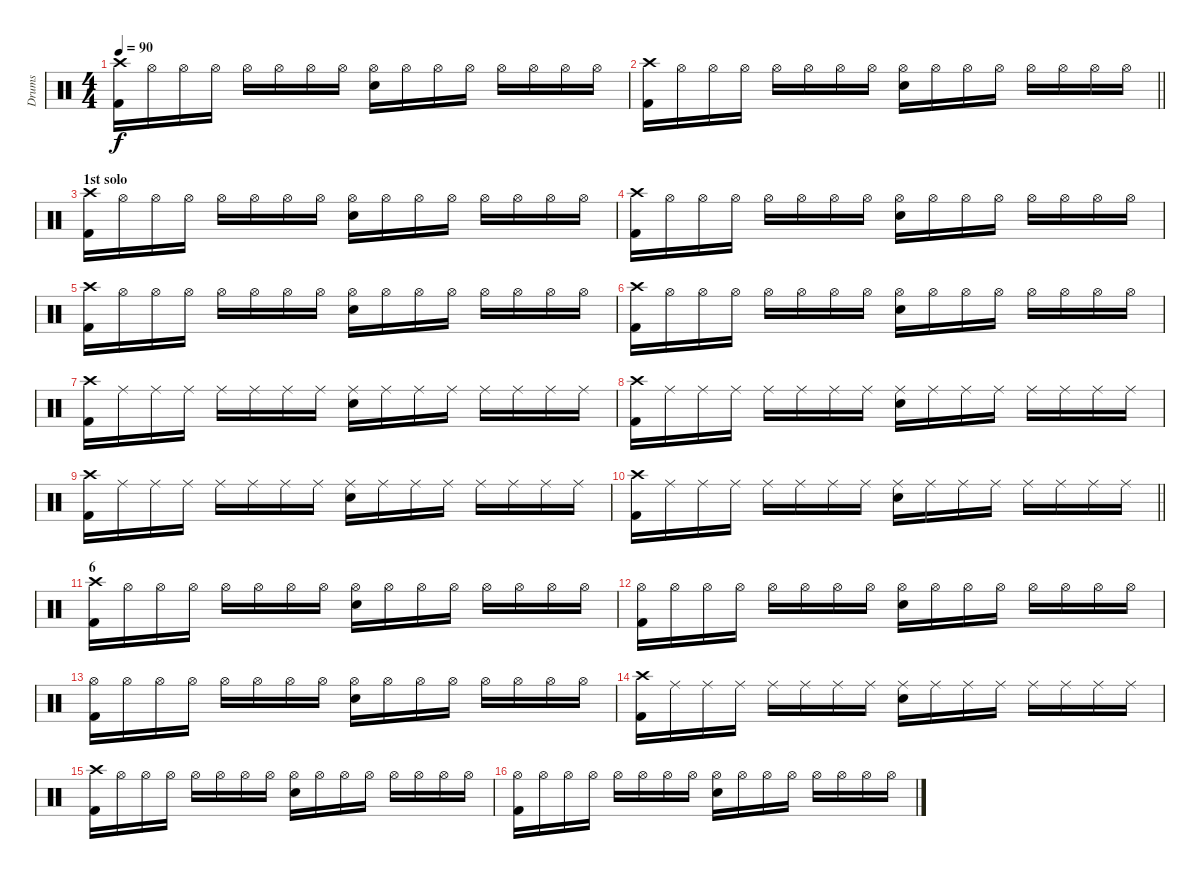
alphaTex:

\track ("Drums" "Drums") {instrument percussion}
\staff {score}
\articulation defaults
\ts (4 4)
\tempo 90
\clef neutral
\ks c
("Crash high (hit)" "Kick (hit) 2").16{dy f} "Hi-Hat (open)".16 "Hi-Hat (open)".16 "Hi-Hat (open)".16 "Hi-Hat (open)".16 "Hi-Hat (open)".16 "Hi-Hat (open)".16 "Hi-Hat (open)".16 ("Hi-Hat (open)" "Snare (hit) 2").16 "Hi-Hat (open)".16 "Hi-Hat (open)".16 "Hi-Hat (open)".16 "Hi-Hat (open)".16 "Hi-Hat (open)".16 "Hi-Hat (open)".16 "Hi-Hat (open)".16 |
\barLineRight lightlight
("Crash high (hit)" "Kick (hit) 2").16 "Hi-Hat (open)".16 "Hi-Hat (open)".16 "Hi-Hat (open)".16 "Hi-Hat (open)".16 "Hi-Hat (open)".16 "Hi-Hat (open)".16 "Hi-Hat (open)".16 ("Hi-Hat (open)" "Snare (hit) 2").16 "Hi-Hat (open)".16 "Hi-Hat (open)".16 "Hi-Hat (open)".16 "Hi-Hat (open)".16 "Hi-Hat (open)".16 "Hi-Hat (open)".16 "Hi-Hat (open)".16 |
\section ("" "1st solo")
("Crash high (hit)" "Kick (hit) 2").16 "Hi-Hat (open)".16 "Hi-Hat (open)".16 "Hi-Hat (open)".16 "Hi-Hat (open)".16 "Hi-Hat (open)".16 "Hi-Hat (open)".16 "Hi-Hat (open)".16 ("Hi-Hat (open)" "Snare (hit) 2").16 "Hi-Hat (open)".16 "Hi-Hat (open)".16 "Hi-Hat (open)".16 "Hi-Hat (open)".16 "Hi-Hat (open)".16 "Hi-Hat (open)".16 "Hi-Hat (open)".16 |
("Crash high (hit)" "Kick (hit) 2").16 "Hi-Hat (open)".16 "Hi-Hat (open)".16 "Hi-Hat (open)".16 "Hi-Hat (open)".16 "Hi-Hat (open)".16 "Hi-Hat (open)".16 "Hi-Hat (open)".16 ("Hi-Hat (open)" "Snare (hit) 2").16 "Hi-Hat (open)".16 "Hi-Hat (open)".16 "Hi-Hat (open)".16 "Hi-Hat (open)".16 "Hi-Hat (open)".16 "Hi-Hat (open)".16 "Hi-Hat (open)".16 |
("Crash high (hit)" "Kick (hit) 2").16 "Hi-Hat (open)".16 "Hi-Hat (open)".16 "Hi-Hat (open)".16 "Hi-Hat (open)".16 "Hi-Hat (open)".16 "Hi-Hat (open)".16 "Hi-Hat (open)".16 ("Hi-Hat (open)" "Snare (hit) 2").16 "Hi-Hat (open)".16 "Hi-Hat (open)".16 "Hi-Hat (open)".16 "Hi-Hat (open)".16 "Hi-Hat (open)".16 "Hi-Hat (open)".16 "Hi-Hat (open)".16 |
("Crash high (hit)" "Kick (hit) 2").16 "Hi-Hat (open)".16 "Hi-Hat (open)".16 "Hi-Hat (open)".16 "Hi-Hat (open)".16 "Hi-Hat (open)".16 "Hi-Hat (open)".16 "Hi-Hat (open)".16 ("Hi-Hat (open)" "Snare (hit) 2").16 "Hi-Hat (open)".16 "Hi-Hat (open)".16 "Hi-Hat (open)".16 "Hi-Hat (open)".16 "Hi-Hat (open)".16 "Hi-Hat (open)".16 "Hi-Hat (open)".16 |
("Crash high (hit)" "Kick (hit) 2").16 "Ride (middle)".16 "Ride (middle)".16 "Ride (middle)".16 "Ride (middle)".16 "Ride (middle)".16 "Ride (middle)".16 "Ride (middle)".16 ("Ride (middle)" "Snare (hit) 2").16 "Ride (middle)".16 "Ride (middle)".16 "Ride (middle)".16 "Ride (middle)".16 "Ride (middle)".16 "Ride (middle)".16 "Ride (middle)".16 |
("Crash high (hit)" "Kick (hit) 2").16 "Ride (middle)".16 "Ride (middle)".16 "Ride (middle)".16 "Ride (middle)".16 "Ride (middle)".16 "Ride (middle)".16 "Ride (middle)".16 ("Ride (middle)" "Snare (hit) 2").16 "Ride (middle)".16 "Ride (middle)".16 "Ride (middle)".16 "Ride (middle)".16 "Ride (middle)".16 "Ride (middle)".16 "Ride (middle)".16 |
("Crash high (hit)" "Kick (hit) 2").16 "Ride (middle)".16 "Ride (middle)".16 "Ride (middle)".16 "Ride (middle)".16 "Ride (middle)".16 "Ride (middle)".16 "Ride (middle)".16 ("Ride (middle)" "Snare (hit) 2").16 "Ride (middle)".16 "Ride (middle)".16 "Ride (middle)".16 "Ride (middle)".16 "Ride (middle)".16 "Ride (middle)".16 "Ride (middle)".16 |
\barLineRight lightlight
("Crash high (hit)" "Kick (hit) 2").16 "Ride (middle)".16 "Ride (middle)".16 "Ride (middle)".16 "Ride (middle)".16 "Ride (middle)".16 "Ride (middle)".16 "Ride (middle)".16 ("Ride (middle)" "Snare (hit) 2").16 "Ride (middle)".16 "Ride (middle)".16 "Ride (middle)".16 "Ride (middle)".16 "Ride (middle)".16 "Ride (middle)".16 "Ride (middle)".16 |
\section ("" "6")
("Crash high (hit)" "Kick (hit) 2").16 "Hi-Hat (open)".16 "Hi-Hat (open)".16 "Hi-Hat (open)".16 "Hi-Hat (open)".16 "Hi-Hat (open)".16 "Hi-Hat (open)".16 "Hi-Hat (open)".16 ("Hi-Hat (open)" "Snare (hit) 2").16 "Hi-Hat (open)".16 "Hi-Hat (open)".16 "Hi-Hat (open)".16 "Hi-Hat (open)".16 "Hi-Hat (open)".16 "Hi-Hat (open)".16 "Hi-Hat (open)".16 |
("Hi-Hat (open)" "Kick (hit) 2").16 "Hi-Hat (open)".16 "Hi-Hat (open)".16 "Hi-Hat (open)".16 "Hi-Hat (open)".16 "Hi-Hat (open)".16 "Hi-Hat (open)".16 "Hi-Hat (open)".16 ("Hi-Hat (open)" "Snare (hit) 2").16 "Hi-Hat (open)".16 "Hi-Hat (open)".16 "Hi-Hat (open)".16 "Hi-Hat (open)".16 "Hi-Hat (open)".16 "Hi-Hat (open)".16 "Hi-Hat (open)".16 |
("Hi-Hat (open)" "Kick (hit) 2").16 "Hi-Hat (open)".16 "Hi-Hat (open)".16 "Hi-Hat (open)".16 "Hi-Hat (open)".16 "Hi-Hat (open)".16 "Hi-Hat (open)".16 "Hi-Hat (open)".16 ("Hi-Hat (open)" "Snare (hit) 2").16 "Hi-Hat (open)".16 "Hi-Hat (open)".16 "Hi-Hat (open)".16 "Hi-Hat (open)".16 "Hi-Hat (open)".16 "Hi-Hat (open)".16 "Hi-Hat (open)".16 |
("Crash high (hit)" "Kick (hit) 2").16 "Ride (middle)".16 "Ride (middle)".16 "Ride (middle)".16 "Ride (middle)".16 "Ride (middle)".16 "Ride (middle)".16 "Ride (middle)".16 ("Ride (middle)" "Snare (hit) 2").16 "Ride (middle)".16 "Ride (middle)".16 "Ride (middle)".16 "Ride (middle)".16 "Ride (middle)".16 "Ride (middle)".16 "Ride (middle)".16 |
("Crash high (hit)" "Kick (hit) 2").16 "Hi-Hat (open)".16 "Hi-Hat (open)".16 "Hi-Hat (open)".16 "Hi-Hat (open)".16 "Hi-Hat (open)".16 "Hi-Hat (open)".16 "Hi-Hat (open)".16 ("Hi-Hat (open)" "Snare (hit) 2").16 "Hi-Hat (open)".16 "Hi-Hat (open)".16 "Hi-Hat (open)".16 "Hi-Hat (open)".16 "Hi-Hat (open)".16 "Hi-Hat (open)".16 "Hi-Hat (open)".16 |
("Hi-Hat (open)" "Kick (hit) 2").16 "Hi-Hat (open)".16 "Hi-Hat (open)".16 "Hi-Hat (open)".16 "Hi-Hat (open)".16 "Hi-Hat (open)".16 "Hi-Hat (open)".16 "Hi-Hat (open)".16 ("Hi-Hat (open)" "Snare (hit) 2").16 "Hi-Hat (open)".16 "Hi-Hat (open)".16 "Hi-Hat (open)".16 "Hi-Hat (open)".16 "Hi-Hat (open)".16 "Hi-Hat (open)".16 "Hi-Hat (open)".16
